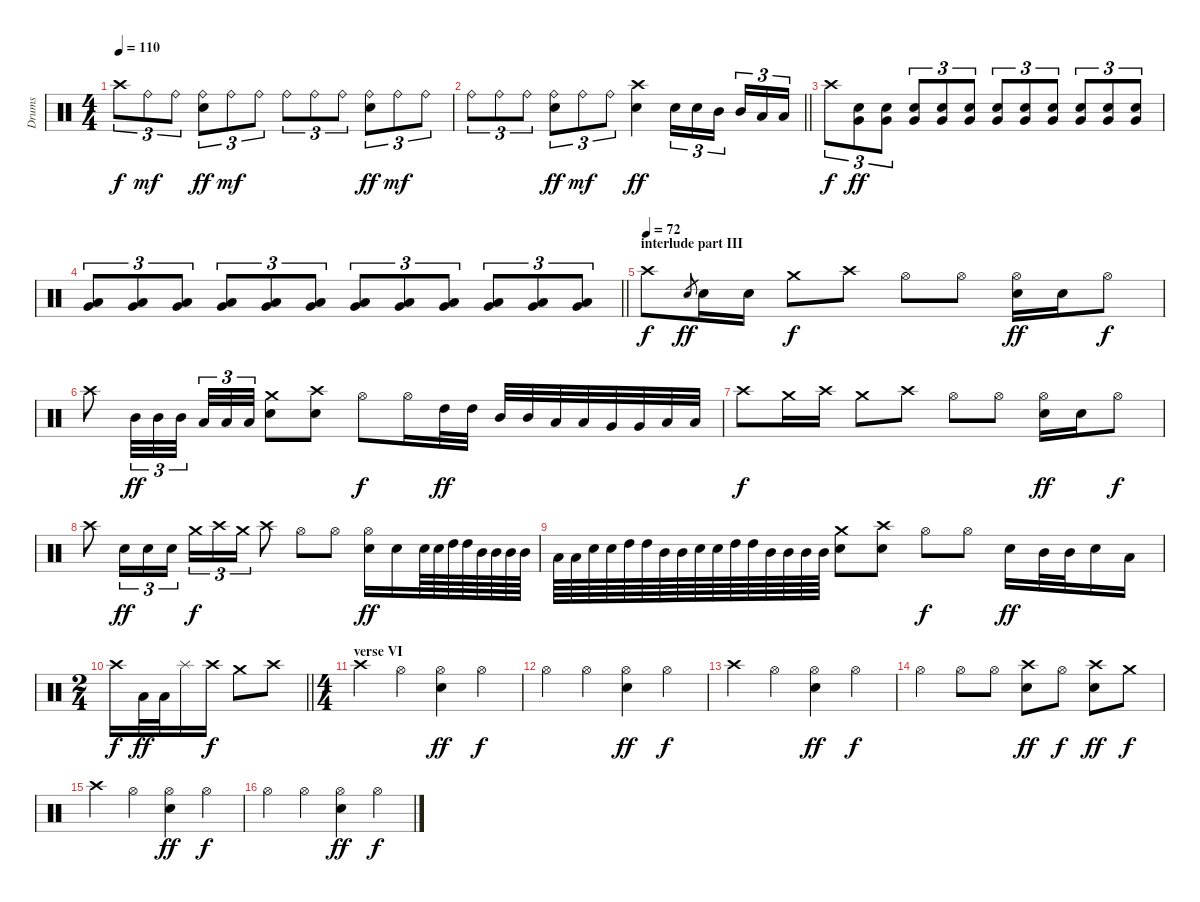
\track ("Drums" "Drums") {instrument percussion}
\staff {score}
\articulation defaults
\ts (4 4)
\tempo 110
\clef neutral
\ks c "Crash high (hit)".8{tu (3 2) dy f} "Ride (bell)".8{tu (3 2) dy mf} "Ride (bell)".8{tu (3 2)}
("Ride (bell)" "Snare (hit) 2").8{tu (3 2) dy ff} "Ride (bell)".8{tu (3 2) dy mf} "Ride (bell)".8{tu (3 2)} "Ride (bell)".8{tu (3 2)} "Ride (bell)".8{tu (3 2)} "Ride (bell)".8{tu (3 2)} ("Ride (bell)" "Snare (hit) 2").8{tu (3 2) dy ff} "Ride (bell)".8{tu (3 2) dy mf} "Ride (bell)".8{tu (3 2)} |
\barLineRight lightlight "Ride (bell)".8{tu (3 2)} "Ride (bell)".8{tu (3 2)} "Ride (bell)".8{tu (3 2)}
("Ride (bell)" "Snare (hit) 2").8{tu (3 2) dy ff} "Ride (bell)".8{tu (3 2) dy mf} "Ride (bell)".8{tu (3 2)} ("Crash high (hit)" "Snare (hit) 2").4{dy ff} "Snare (hit) 2".16{tu (3 2)} "Snare (hit) 2".16{tu (3 2)} "Mid Tom (hit)".16{tu (3 2) beam splitsecondary} "Mid Tom (hit)".16{tu (3 2)} "Low Tom (hit)".16{tu (3 2)} "Low Tom (hit)".16{tu (3 2)} |
\section ("" "")
"Crash high (hit)".8{tu (3 2) dy f} ("Snare (hit) 2" "Very Low Tom (hit)").8{tu (3 2) dy ff} ("Snare (hit) 2" "Very Low Tom (hit)").8{tu (3 2)} ("Snare (hit) 2" "Very Low Tom (hit)").8{tu (3 2)} ("Snare (hit) 2" "Very Low Tom (hit)").8{tu (3 2)} ("Snare (hit) 2" "Very Low Tom (hit)").8{tu (3 2)} ("Snare (hit) 2" "Very Low Tom (hit)").8{tu (3 2)} ("Snare (hit) 2" "Very Low Tom (hit)").8{tu (3 2)} ("Snare (hit) 2" "Very Low Tom (hit)").8{tu (3 2)} ("Snare (hit) 2" "Very Low Tom (hit)").8{tu (3 2)} ("Snare (hit) 2" "Very Low Tom (hit)").8{tu (3 2)} ("Snare (hit) 2" "Very Low Tom (hit)").8{tu (3 2)} |
\barLineRight lightlight
("Low Tom (hit)" "Very Low Tom (hit)").8{tu (3 2)} ("Low Tom (hit)" "Very Low Tom (hit)").8{tu (3 2)} ("Low Tom (hit)" "Very Low Tom (hit)").8{tu (3 2)} ("Low Tom (hit)" "Very Low Tom (hit)").8{tu (3 2)} ("Low Tom (hit)" "Very Low Tom (hit)").8{tu (3 2)} ("Low Tom (hit)" "Very Low Tom (hit)").8{tu (3 2)} ("Very Low Tom (hit)" "Low Floor Tom (hit)").8{tu (3 2)} ("Very Low Tom (hit)" "Low Floor Tom (hit)").8{tu (3 2)} ("Very Low Tom (hit)" "Low Floor Tom (hit)").8{tu (3 2)} ("Very Low Tom (hit)" "Low Floor Tom (hit)").8{tu (3 2)} ("Very Low Tom (hit)" "Low Floor Tom (hit)").8{tu (3 2)} ("Very Low Tom (hit)" "Low Floor Tom (hit)").8{tu (3 2)} |
\section ("" "interlude part III")
\tempo (72)
"Crash high (hit)".8{dy f} "Snare (hit) 2".8{gr dy ff} "Snare (hit) 2".16 "Snare (hit) 2".16 "Crash medium (hit)".8{dy f} "Crash high (hit)".8 "Hi-Hat (open)".8 "Hi-Hat (open)".8 ("Hi-Hat (open)" "Snare (hit) 2").16{dy ff} "Snare (hit) 2".16 "Hi-Hat (open)".8{dy f} |
"Crash high (hit)".8 "Mid Tom (hit)".32{tu (3 2) dy ff} "Mid Tom (hit)".32{tu (3 2)} "Mid Tom (hit)".32{tu (3 2) beam splitsecondary} "Low Tom (hit)".32{tu (3 2)} "Low Tom (hit)".32{tu (3 2)} "Low Tom (hit)".32{tu (3 2)} ("Crash medium (hit)" "Snare (hit) 2").8 ("Crash high (hit)" "Snare (hit) 2").8 "Hi-Hat (open)".8{dy f} "Hi-Hat (open)".16 "High Tom (hit)".32{dy ff} "High Tom (hit)".32 "Mid Tom (hit)".32 "Mid Tom (hit)".32 "Low Tom (hit)".32 "Low Tom (hit)".32 "Very Low Tom (hit)".32 "Very Low Tom (hit)".32 "Low Floor Tom (hit)".32 "Low Floor Tom (hit)".32 |
"Crash high (hit)".8{dy f} "Crash medium (hit)".16 "Crash high (hit)".16 "Crash medium (hit)".8 "Crash high (hit)".8 "Hi-Hat (open)".8 "Hi-Hat (open)".8 ("Hi-Hat (open)" "Snare (hit) 2").16{dy ff} "Snare (hit) 2".16 "Hi-Hat (open)".8{dy f} |
"Crash high (hit)".8 "Snare (hit) 2".16{tu (3 2) dy ff} "Snare (hit) 2".16{tu (3 2)} "Snare (hit) 2".16{tu (3 2)} "Crash medium (hit)".16{tu (3 2) dy f} "Crash high (hit)".16{tu (3 2)} "Crash medium (hit)".16{tu (3 2)} "Crash high (hit)".8 "Hi-Hat (open)".8 "Hi-Hat (open)".8 ("Hi-Hat (open)" "Snare (hit) 2").16{dy ff} "Snare (hit) 2".16 "Snare (hit) 2".64 "Snare (hit) 2".64 "High Tom (hit)".64 "High Tom (hit)".64 "Mid Tom (hit)".64 "Mid Tom (hit)".64 "Mid Tom (hit)".64 "Mid Tom (hit)".64 |
"Low Tom (hit)".64 "Low Tom (hit)".64 "Snare (hit) 2".64 "Snare (hit) 2".64 "High Tom (hit)".64 "High Tom (hit)".64 "Mid Tom (hit)".64 "Mid Tom (hit)".64 "Snare (hit) 2".64 "Snare (hit) 2".64 "High Tom (hit)".64 "High Tom (hit)".64 "Mid Tom (hit)".64 "Mid Tom (hit)".64 "Mid Tom (hit)".64 "Mid Tom (hit)".64 ("Crash medium (hit)" "Snare (hit) 2").8 ("Crash high (hit)" "Snare (hit) 2").8 "Hi-Hat (open)".8{dy f} "Hi-Hat (open)".8 "Snare (hit) 2".16{dy ff} "Mid Tom (hit)".32 "Mid Tom (hit)".32 "Snare (hit) 2".16 "Low Tom (hit)".16 |
\ts (2 4)
\barLineRight lightlight "Crash high (hit)".16{dy f} "Low Tom (hit)".32{dy ff} "Low Tom (hit)".32 "Splash (hit)".16 "Crash high (hit)".16{dy f} "Crash medium (hit)".8 "Crash high (hit)".8
|
\ts (4 4)
\section ("" "verse VI")
"Crash high (hit)".4 "Hi-Hat (open)".4 ("Hi-Hat (open)" "Snare (hit) 2").4{dy ff} "Hi-Hat (open)".4{dy f} |
"Hi-Hat (open)".4 "Hi-Hat (open)".4 ("Hi-Hat (open)" "Snare (hit) 2").4{dy ff} "Hi-Hat (open)".4{dy f} |
"Crash high (hit)".4 "Hi-Hat (open)".4 ("Hi-Hat (open)" "Snare (hit) 2").4{dy ff} "Hi-Hat (open)".4{dy f} |
"Hi-Hat (open)".4 "Hi-Hat (open)".8 "Hi-Hat (open)".8 ("Crash high (hit)" "Snare (hit) 2").8{dy ff} "Hi-Hat (open)".8{dy f} ("Crash high (hit)" "Snare (hit) 2").8{dy ff} "Crash medium (hit)".8{dy f} |
"Crash high (hit)".4 "Hi-Hat (open)".4 ("Hi-Hat (open)" "Snare (hit) 2").4{dy ff} "Hi-Hat (open)".4{dy f} |
"Hi-Hat (open)".4 "Hi-Hat (open)".4 ("Hi-Hat (open)" "Snare (hit) 2").4{dy ff} "Hi-Hat (open)".4{dy f}
